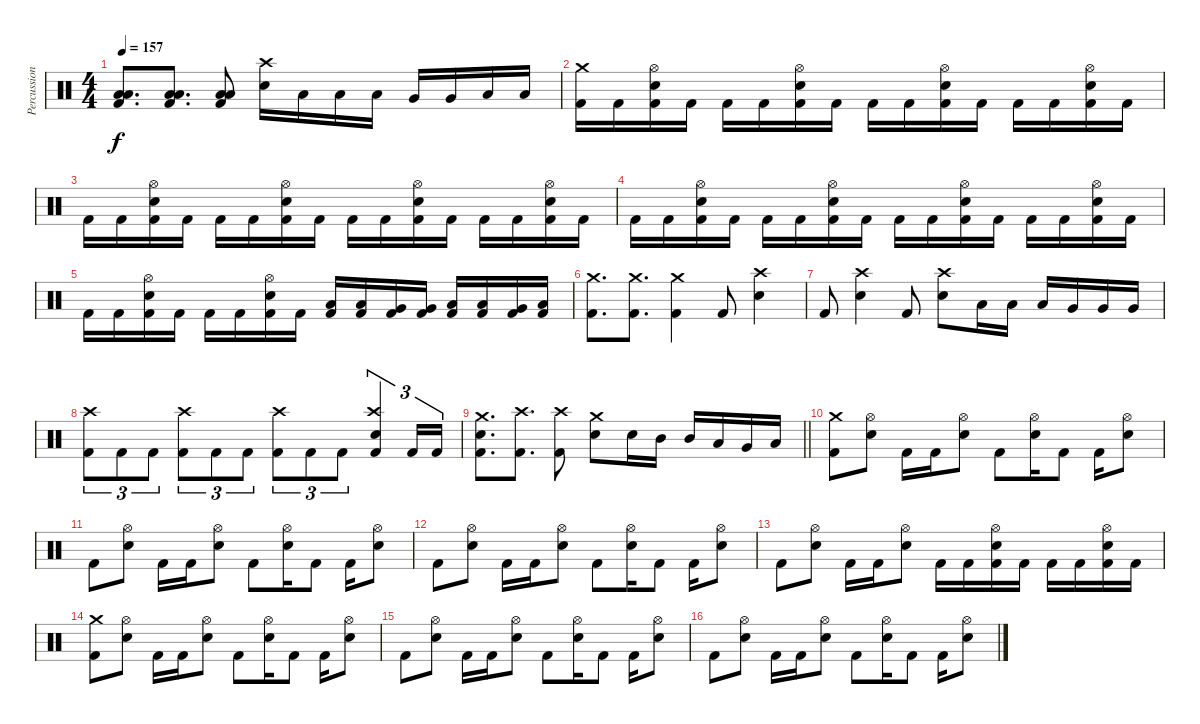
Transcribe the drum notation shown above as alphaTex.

\track ("Percussion" "Percussion") {instrument percussion}
\staff {score}
\articulation defaults
\ts (4 4)
\tempo 157
\clef neutral
\ks c
("Low Floor Tom (hit)" "Low Floor Tom (hit)" "Kick (hit) 2").8{d dy f} ("Low Floor Tom (hit)" "Low Floor Tom (hit)" "Kick (hit) 2").8{d} ("Low Floor Tom (hit)" "Low Floor Tom (hit)" "Kick (hit) 2").8 ("Crash high (hit)" "Electric Snare (hit)").16 "Low Tom (hit)".16 "Low Tom (hit)".16 "Low Tom (hit)".16 "Very Low Tom (hit)".16 "Very Low Tom (hit)".16 "Low Floor Tom (hit)".16 "Low Floor Tom (hit)".16 |
("Crash medium (hit)" "Kick (hit) 2").16 "Kick (hit) 2".16 ("Hi-Hat (open)" "Electric Snare (hit)" "Kick (hit) 2").16 "Kick (hit) 2".16 "Kick (hit) 2".16 "Kick (hit) 2".16 ("Hi-Hat (open)" "Electric Snare (hit)" "Kick (hit) 2").16 "Kick (hit) 2".16 "Kick (hit) 2".16 "Kick (hit) 2".16 ("Hi-Hat (open)" "Electric Snare (hit)" "Kick (hit) 2").16 "Kick (hit) 2".16 "Kick (hit) 2".16 "Kick (hit) 2".16 ("Hi-Hat (open)" "Electric Snare (hit)" "Kick (hit) 2").16 "Kick (hit) 2".16 |
"Kick (hit) 2".16 "Kick (hit) 2".16 ("Hi-Hat (open)" "Electric Snare (hit)" "Kick (hit) 2").16 "Kick (hit) 2".16 "Kick (hit) 2".16 "Kick (hit) 2".16 ("Hi-Hat (open)" "Electric Snare (hit)" "Kick (hit) 2").16 "Kick (hit) 2".16 "Kick (hit) 2".16 "Kick (hit) 2".16 ("Hi-Hat (open)" "Electric Snare (hit)" "Kick (hit) 2").16 "Kick (hit) 2".16 "Kick (hit) 2".16 "Kick (hit) 2".16 ("Hi-Hat (open)" "Electric Snare (hit)" "Kick (hit) 2").16 "Kick (hit) 2".16 |
"Kick (hit) 2".16 "Kick (hit) 2".16 ("Hi-Hat (open)" "Electric Snare (hit)" "Kick (hit) 2").16 "Kick (hit) 2".16 "Kick (hit) 2".16 "Kick (hit) 2".16 ("Hi-Hat (open)" "Electric Snare (hit)" "Kick (hit) 2").16 "Kick (hit) 2".16 "Kick (hit) 2".16 "Kick (hit) 2".16 ("Hi-Hat (open)" "Electric Snare (hit)" "Kick (hit) 2").16 "Kick (hit) 2".16 "Kick (hit) 2".16 "Kick (hit) 2".16 ("Hi-Hat (open)" "Electric Snare (hit)" "Kick (hit) 2").16 "Kick (hit) 2".16 |
"Kick (hit) 2".16 "Kick (hit) 2".16 ("Hi-Hat (open)" "Electric Snare (hit)" "Kick (hit) 2").16 "Kick (hit) 2".16 "Kick (hit) 2".16 "Kick (hit) 2".16 ("Hi-Hat (open)" "Electric Snare (hit)" "Kick (hit) 2").16 "Kick (hit) 2".16 ("Low Tom (hit)" "Kick (hit) 2").16 ("Low Tom (hit)" "Kick (hit) 2").16 ("Very Low Tom (hit)" "Kick (hit) 2").16 ("Very Low Tom (hit)" "Kick (hit) 2").16 ("Low Floor Tom (hit)" "Kick (hit) 2").16 ("Low Tom (hit)" "Kick (hit) 2").16 ("Very Low Tom (hit)" "Kick (hit) 2").16 ("Low Floor Tom (hit)" "Kick (hit) 2").16 |
("Crash medium (hit)" "Kick (hit) 2").8{d} ("Crash medium (hit)" "Kick (hit) 2").8{d} ("Crash medium (hit)" "Kick (hit) 2").4 "Kick (hit) 2".8 ("Crash high (hit)" "Electric Snare (hit)").4 |
"Kick (hit) 2".8 ("Crash high (hit)" "Electric Snare (hit)").4 "Kick (hit) 2".8 ("Crash high (hit)" "Electric Snare (hit)").8 "Low Tom (hit)".16 "Low Tom (hit)".16 "Low Tom (hit)".16 "Very Low Tom (hit)".16 "Very Low Tom (hit)".16 "Very Low Tom (hit)".16 |
("Crash high (hit)" "Kick (hit) 2").8{tu (3 2)} "Kick (hit) 2".8{tu (3 2)} "Kick (hit) 2".8{tu (3 2)} ("Crash high (hit)" "Kick (hit) 2").8{tu (3 2)} "Kick (hit) 2".8{tu (3 2)} "Kick (hit) 2".8{tu (3 2)} ("Crash high (hit)" "Kick (hit) 2").8{tu (3 2)} "Kick (hit) 2".8{tu (3 2)} "Kick (hit) 2".8{tu (3 2)} ("Crash high (hit)" "Electric Snare (hit)" "Kick (hit) 2").4{tu (3 2)} "Kick (hit) 2".16{tu (3 2)} "Kick (hit) 2".16{tu (3 2)} |
\barLineRight lightlight
("Crash medium (hit)" "Electric Snare (hit)" "Kick (hit) 2").8{d} ("Crash high (hit)" "Kick (hit) 2").8{d} ("Crash high (hit)" "Kick (hit) 2").8 ("Crash medium (hit)" "Electric Snare (hit)").8 "Electric Snare (hit)".16 "Mid Tom (hit)".16 "Mid Tom (hit)".16 "Low Tom (hit)".16 "Very Low Tom (hit)".16 "Low Floor Tom (hit)".16 |
("Crash medium (hit)" "Kick (hit) 2").8 ("Hi-Hat (open)" "Electric Snare (hit)").8 "Kick (hit) 2".16 "Kick (hit) 2".16 ("Hi-Hat (open)" "Electric Snare (hit)").8 "Kick (hit) 2".8 ("Hi-Hat (open)" "Electric Snare (hit)").16 "Kick (hit) 2".8 "Kick (hit) 2".16 ("Hi-Hat (open)" "Electric Snare (hit)").8 |
"Kick (hit) 2".8 ("Hi-Hat (open)" "Electric Snare (hit)").8 "Kick (hit) 2".16 "Kick (hit) 2".16 ("Hi-Hat (open)" "Electric Snare (hit)").8 "Kick (hit) 2".8 ("Hi-Hat (open)" "Electric Snare (hit)").16 "Kick (hit) 2".8 "Kick (hit) 2".16 ("Hi-Hat (open)" "Electric Snare (hit)").8 |
"Kick (hit) 2".8 ("Hi-Hat (open)" "Electric Snare (hit)").8 "Kick (hit) 2".16 "Kick (hit) 2".16 ("Hi-Hat (open)" "Electric Snare (hit)").8 "Kick (hit) 2".8 ("Hi-Hat (open)" "Electric Snare (hit)").16 "Kick (hit) 2".8 "Kick (hit) 2".16 ("Hi-Hat (open)" "Electric Snare (hit)").8 |
"Kick (hit) 2".8 ("Hi-Hat (open)" "Electric Snare (hit)").8 "Kick (hit) 2".16 "Kick (hit) 2".16 ("Hi-Hat (open)" "Electric Snare (hit)").8 "Kick (hit) 2".16 "Kick (hit) 2".16 ("Hi-Hat (open)" "Electric Snare (hit)" "Kick (hit) 2").16 "Kick (hit) 2".16 "Kick (hit) 2".16 "Kick (hit) 2".16 ("Hi-Hat (open)" "Electric Snare (hit)" "Kick (hit) 2").16 "Kick (hit) 2".16 |
("Crash medium (hit)" "Kick (hit) 2").8 ("Hi-Hat (open)" "Electric Snare (hit)").8 "Kick (hit) 2".16 "Kick (hit) 2".16 ("Hi-Hat (open)" "Electric Snare (hit)").8 "Kick (hit) 2".8 ("Hi-Hat (open)" "Electric Snare (hit)").16 "Kick (hit) 2".8 "Kick (hit) 2".16 ("Hi-Hat (open)" "Electric Snare (hit)").8 |
"Kick (hit) 2".8 ("Hi-Hat (open)" "Electric Snare (hit)").8 "Kick (hit) 2".16 "Kick (hit) 2".16 ("Hi-Hat (open)" "Electric Snare (hit)").8 "Kick (hit) 2".8 ("Hi-Hat (open)" "Electric Snare (hit)").16 "Kick (hit) 2".8 "Kick (hit) 2".16 ("Hi-Hat (open)" "Electric Snare (hit)").8 |
"Kick (hit) 2".8 ("Hi-Hat (open)" "Electric Snare (hit)").8 "Kick (hit) 2".16 "Kick (hit) 2".16 ("Hi-Hat (open)" "Electric Snare (hit)").8 "Kick (hit) 2".8 ("Hi-Hat (open)" "Electric Snare (hit)").16 "Kick (hit) 2".8 "Kick (hit) 2".16 ("Hi-Hat (open)" "Electric Snare (hit)").8
